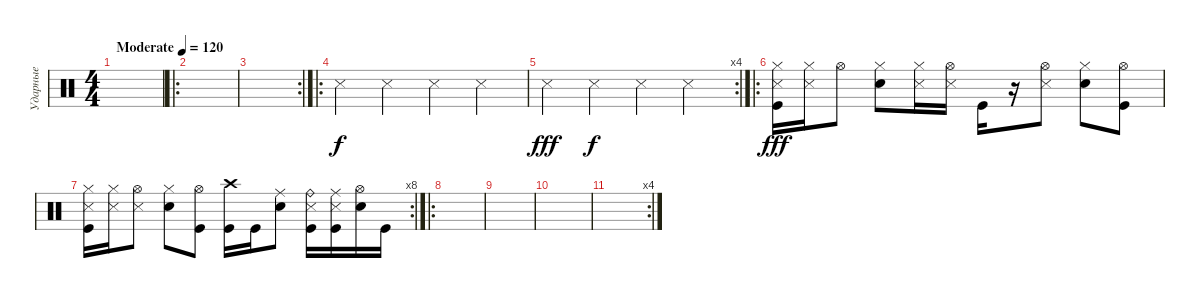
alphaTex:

\track ("Ударные" "Ударные") {instrument percussion}
\staff {score}
\articulation defaults
\ts (4 4)
\tempo (120 "Moderate")
\clef neutral
\ks c
|
\ro
|
\rc 2
|
\ro "Snare (side stick) 3".4 "Snare (side stick) 3".4 "Snare (side stick) 3".4 "Snare (side stick) 3".4
|
\rc 4 "Snare (side stick) 3".4{dy fff} "Snare (side stick) 3".4{dy f} "Snare (side stick) 3".4 "Snare (side stick) 3".4
|
\ro
("Hi-Hat (closed)" "Snare (side stick) 3" "Kick (hit)").16{dy fff} ("Hi-Hat (closed)" "Snare (side stick) 3").16 "Hi-Hat (open)".8 ("Hi-Hat (closed)" "Electric Snare (hit)").8 ("Hi-Hat (closed)" "Snare (side stick) 3").16 ("Hi-Hat (open)" "Snare (side stick) 3").16 "Kick (hit)".16 r.16 ("Hi-Hat (open)" "Snare (side stick) 3").8 ("Hi-Hat (closed)" "Electric Snare (hit)").8 ("Hi-Hat (open)" "Kick (hit)").8 |
\rc 8
("Hi-Hat (closed)" "Snare (side stick) 3" "Kick (hit)").16 ("Hi-Hat (closed)" "Snare (side stick) 3").16 ("Hi-Hat (open)" "Snare (side stick) 3").8 ("Hi-Hat (closed)" "Electric Snare (hit)").8 ("Hi-Hat (open)" "Kick (hit)").8 ("Crash high (hit)" "Kick (hit)").16 "Kick (hit)".16 ("Ride (middle)" "Electric Snare (hit)").8 ("Ride (bell)" "Snare (side stick) 3" "Kick (hit)").16 ("Ride (middle)" "Snare (side stick) 3" "Kick (hit)").16 ("Hi-Hat (open)" "Electric Snare (hit)").16 "Kick (hit)".16 |
\ro
|
|
|
\rc 4
